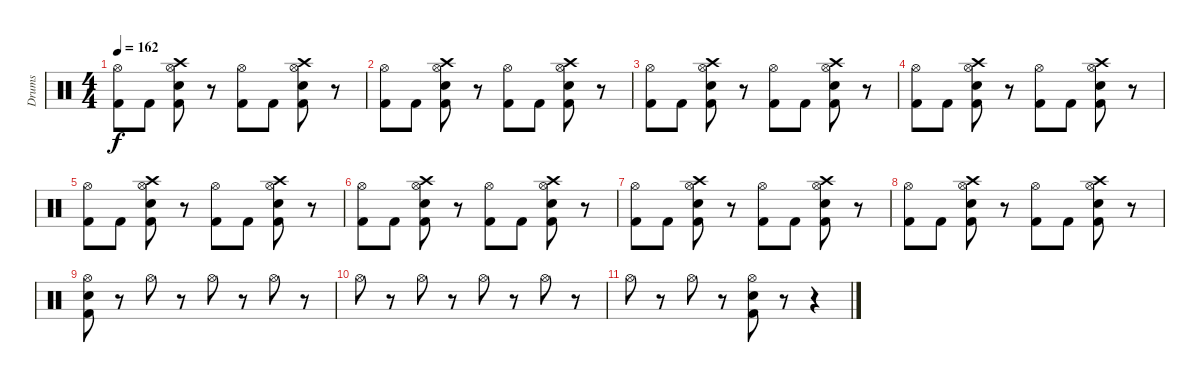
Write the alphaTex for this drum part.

\track ("Drums" "Drums") {instrument percussion}
\staff {score}
\articulation defaults
\ts (4 4)
\tempo 162
\clef neutral
\ks c
("Hi-Hat (open)" "Kick (hit) 2").8{dy f} "Kick (hit) 2".8 ("Hi-Hat (open)" "Crash high (hit)" "Snare (hit) 2" "Kick (hit) 2").8 r.8 ("Hi-Hat (open)" "Kick (hit) 2").8 "Kick (hit) 2".8 ("Hi-Hat (open)" "Crash high (hit)" "Snare (hit) 2" "Kick (hit) 2").8 r.8 |
("Hi-Hat (open)" "Kick (hit) 2").8 "Kick (hit) 2".8 ("Hi-Hat (open)" "Crash high (hit)" "Snare (hit) 2" "Kick (hit) 2").8 r.8 ("Hi-Hat (open)" "Kick (hit) 2").8 "Kick (hit) 2".8 ("Hi-Hat (open)" "Crash high (hit)" "Snare (hit) 2" "Kick (hit) 2").8 r.8 |
("Hi-Hat (open)" "Kick (hit) 2").8 "Kick (hit) 2".8 ("Hi-Hat (open)" "Crash high (hit)" "Snare (hit) 2" "Kick (hit) 2").8 r.8 ("Hi-Hat (open)" "Kick (hit) 2").8 "Kick (hit) 2".8 ("Hi-Hat (open)" "Crash high (hit)" "Snare (hit) 2" "Kick (hit) 2").8 r.8 |
("Hi-Hat (open)" "Kick (hit) 2").8 "Kick (hit) 2".8 ("Hi-Hat (open)" "Crash high (hit)" "Snare (hit) 2" "Kick (hit) 2").8 r.8 ("Hi-Hat (open)" "Kick (hit) 2").8 "Kick (hit) 2".8 ("Hi-Hat (open)" "Crash high (hit)" "Snare (hit) 2" "Kick (hit) 2").8 r.8 |
("Hi-Hat (open)" "Kick (hit) 2").8 "Kick (hit) 2".8 ("Hi-Hat (open)" "Crash high (hit)" "Snare (hit) 2" "Kick (hit) 2").8 r.8 ("Hi-Hat (open)" "Kick (hit) 2").8 "Kick (hit) 2".8 ("Hi-Hat (open)" "Crash high (hit)" "Snare (hit) 2" "Kick (hit) 2").8 r.8 |
("Hi-Hat (open)" "Kick (hit) 2").8 "Kick (hit) 2".8 ("Hi-Hat (open)" "Crash high (hit)" "Snare (hit) 2" "Kick (hit) 2").8 r.8 ("Hi-Hat (open)" "Kick (hit) 2").8 "Kick (hit) 2".8 ("Hi-Hat (open)" "Crash high (hit)" "Snare (hit) 2" "Kick (hit) 2").8 r.8 |
("Hi-Hat (open)" "Kick (hit) 2").8 "Kick (hit) 2".8 ("Hi-Hat (open)" "Crash high (hit)" "Snare (hit) 2" "Kick (hit) 2").8 r.8 ("Hi-Hat (open)" "Kick (hit) 2").8 "Kick (hit) 2".8 ("Hi-Hat (open)" "Crash high (hit)" "Snare (hit) 2" "Kick (hit) 2").8 r.8 |
("Hi-Hat (open)" "Kick (hit) 2").8 "Kick (hit) 2".8 ("Hi-Hat (open)" "Crash high (hit)" "Snare (hit) 2" "Kick (hit) 2").8 r.8 ("Hi-Hat (open)" "Kick (hit) 2").8 "Kick (hit) 2".8 ("Hi-Hat (open)" "Crash high (hit)" "Snare (hit) 2" "Kick (hit) 2").8 r.8 |
("Hi-Hat (open)" "Snare (hit) 2" "Kick (hit) 2").8 r.8 "Hi-Hat (open)".8 r.8 "Hi-Hat (open)".8 r.8 "Hi-Hat (open)".8 r.8 |
"Hi-Hat (open)".8 r.8 "Hi-Hat (open)".8 r.8 "Hi-Hat (open)".8 r.8 "Hi-Hat (open)".8 r.8 |
"Hi-Hat (open)".8 r.8 "Hi-Hat (open)".8 r.8 ("Hi-Hat (open)" "Snare (hit) 2" "Kick (hit) 2").8 r.8 r.4
